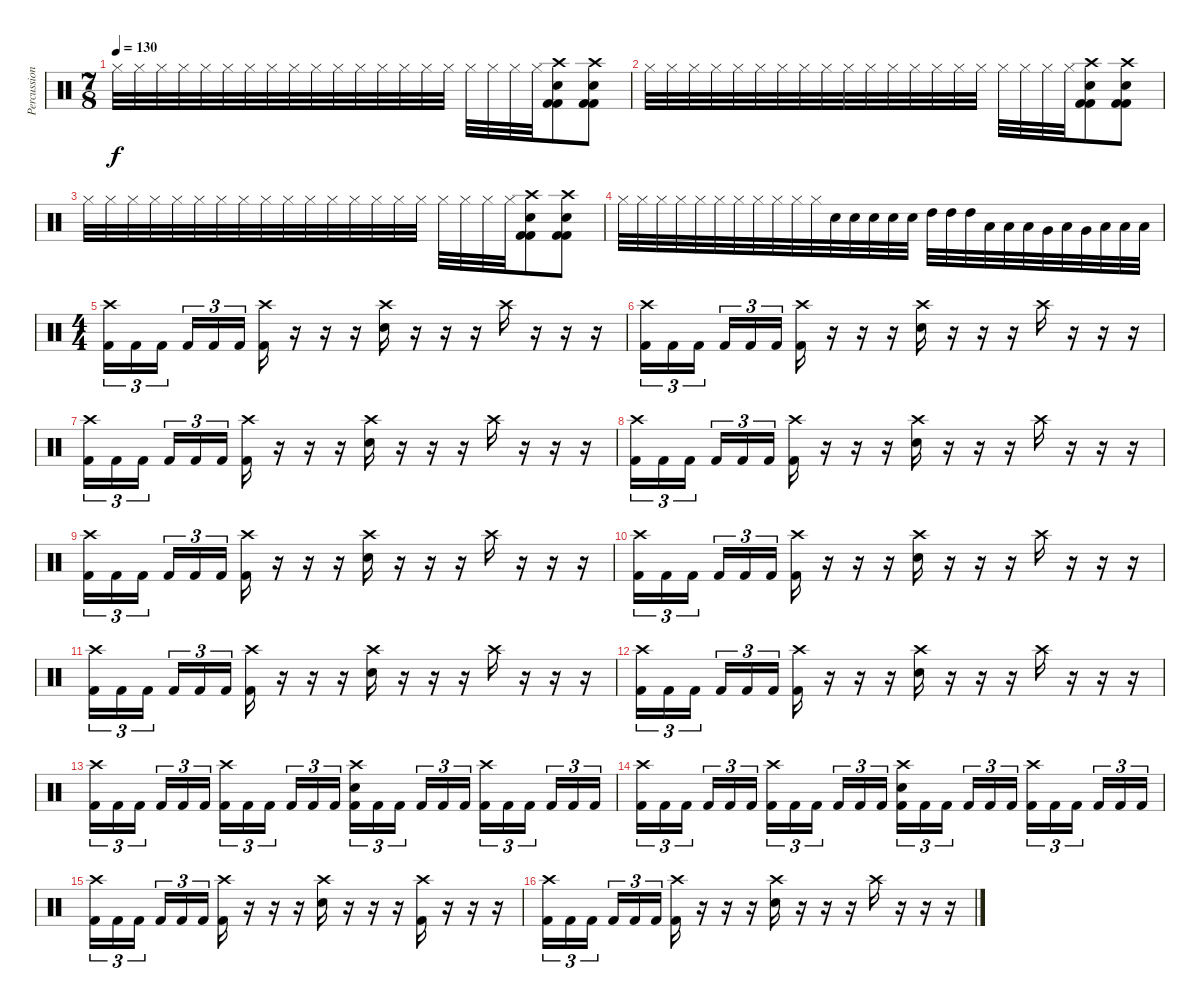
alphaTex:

\track ("Percussion" "Percussion") {instrument percussion}
\staff {score}
\articulation defaults
\ts (7 8)
\tempo 130
\clef neutral
\ks c "Hi-Hat (closed)".32{dy f} "Hi-Hat (closed)".32 "Hi-Hat (closed)".32 "Hi-Hat (closed)".32 "Hi-Hat (closed)".32 "Hi-Hat (closed)".32 "Hi-Hat (closed)".32 "Hi-Hat (closed)".32 "Hi-Hat (closed)".32 "Hi-Hat (closed)".32 "Hi-Hat (closed)".32 "Hi-Hat (closed)".32 "Hi-Hat (closed)".32 "Hi-Hat (closed)".32 "Hi-Hat (closed)".32 "Hi-Hat (closed)".32 "Hi-Hat (closed)".32 "Hi-Hat (closed)".32 "Hi-Hat (closed)".32 "Hi-Hat (closed)".32
("Crash high (hit)" "Electric Snare (hit)" "Kick (hit) 2" "Kick (hit) 2").8 ("Crash high (hit)" "Electric Snare (hit)" "Kick (hit) 2" "Kick (hit) 2").8 |
"Hi-Hat (closed)".32 "Hi-Hat (closed)".32 "Hi-Hat (closed)".32 "Hi-Hat (closed)".32 "Hi-Hat (closed)".32 "Hi-Hat (closed)".32 "Hi-Hat (closed)".32 "Hi-Hat (closed)".32 "Hi-Hat (closed)".32 "Hi-Hat (closed)".32 "Hi-Hat (closed)".32 "Hi-Hat (closed)".32 "Hi-Hat (closed)".32 "Hi-Hat (closed)".32 "Hi-Hat (closed)".32 "Hi-Hat (closed)".32 "Hi-Hat (closed)".32 "Hi-Hat (closed)".32 "Hi-Hat (closed)".32 "Hi-Hat (closed)".32 ("Crash high (hit)" "Electric Snare (hit)" "Kick (hit) 2" "Kick (hit) 2").8 ("Crash high (hit)" "Electric Snare (hit)" "Kick (hit) 2" "Kick (hit) 2").8 |
"Hi-Hat (closed)".32 "Hi-Hat (closed)".32 "Hi-Hat (closed)".32 "Hi-Hat (closed)".32 "Hi-Hat (closed)".32 "Hi-Hat (closed)".32 "Hi-Hat (closed)".32 "Hi-Hat (closed)".32 "Hi-Hat (closed)".32 "Hi-Hat (closed)".32 "Hi-Hat (closed)".32 "Hi-Hat (closed)".32 "Hi-Hat (closed)".32 "Hi-Hat (closed)".32 "Hi-Hat (closed)".32 "Hi-Hat (closed)".32 "Hi-Hat (closed)".32 "Hi-Hat (closed)".32 "Hi-Hat (closed)".32 "Hi-Hat (closed)".32 ("Crash high (hit)" "Electric Snare (hit)" "Kick (hit) 2" "Kick (hit) 2").8 ("Crash high (hit)" "Electric Snare (hit)" "Kick (hit) 2" "Kick (hit) 2").8 |
"Hi-Hat (closed)".32 "Hi-Hat (closed)".32 "Hi-Hat (closed)".32 "Hi-Hat (closed)".32 "Hi-Hat (closed)".32 "Hi-Hat (closed)".32 "Hi-Hat (closed)".32 "Hi-Hat (closed)".32 "Hi-Hat (closed)".32 "Hi-Hat (closed)".32 "Hi-Hat (closed)".32 "Electric Snare (hit)".32 "Electric Snare (hit)".32 "Electric Snare (hit)".32 "Electric Snare (hit)".32 "Electric Snare (hit)".32 "High Tom (hit)".32 "High Tom (hit)".32 "High Tom (hit)".32 "Low Tom (hit)".32 "Low Tom (hit)".32 "Low Tom (hit)".32 "Very Low Tom (hit)".32 "Low Tom (hit)".32 "Very Low Tom (hit)".32 "Low Floor Tom (hit)".32 "Low Floor Tom (hit)".32 "Low Floor Tom (hit)".32 |
\ts (4 4)
("Crash high (hit)" "Kick (hit) 2").16{tu (3 2)} "Kick (hit) 2".16{tu (3 2)} "Kick (hit) 2".16{tu (3 2)} "Kick (hit) 2".16{tu (3 2)} "Kick (hit) 2".16{tu (3 2)} "Kick (hit) 2".16{tu (3 2)} ("Crash high (hit)" "Kick (hit) 2").16 r.16 r.16 r.16 ("Crash high (hit)" "Electric Snare (hit)").16 r.16 r.16 r.16 "Crash high (hit)".16 r.16 r.16 r.16 |
("Crash high (hit)" "Kick (hit) 2").16{tu (3 2)} "Kick (hit) 2".16{tu (3 2)} "Kick (hit) 2".16{tu (3 2)} "Kick (hit) 2".16{tu (3 2)} "Kick (hit) 2".16{tu (3 2)} "Kick (hit) 2".16{tu (3 2)} ("Crash high (hit)" "Kick (hit) 2").16 r.16 r.16 r.16 ("Crash high (hit)" "Electric Snare (hit)").16 r.16 r.16 r.16 "Crash high (hit)".16 r.16 r.16 r.16 |
("Crash high (hit)" "Kick (hit) 2").16{tu (3 2)} "Kick (hit) 2".16{tu (3 2)} "Kick (hit) 2".16{tu (3 2)} "Kick (hit) 2".16{tu (3 2)} "Kick (hit) 2".16{tu (3 2)} "Kick (hit) 2".16{tu (3 2)} ("Crash high (hit)" "Kick (hit) 2").16 r.16 r.16 r.16 ("Crash high (hit)" "Electric Snare (hit)").16 r.16 r.16 r.16 "Crash high (hit)".16 r.16 r.16 r.16 |
("Crash high (hit)" "Kick (hit) 2").16{tu (3 2)} "Kick (hit) 2".16{tu (3 2)} "Kick (hit) 2".16{tu (3 2)} "Kick (hit) 2".16{tu (3 2)} "Kick (hit) 2".16{tu (3 2)} "Kick (hit) 2".16{tu (3 2)} ("Crash high (hit)" "Kick (hit) 2").16 r.16 r.16 r.16 ("Crash high (hit)" "Electric Snare (hit)").16 r.16 r.16 r.16 "Crash high (hit)".16 r.16 r.16 r.16 |
("Crash high (hit)" "Kick (hit) 2").16{tu (3 2)} "Kick (hit) 2".16{tu (3 2)} "Kick (hit) 2".16{tu (3 2)} "Kick (hit) 2".16{tu (3 2)} "Kick (hit) 2".16{tu (3 2)} "Kick (hit) 2".16{tu (3 2)} ("Crash high (hit)" "Kick (hit) 2").16 r.16 r.16 r.16 ("Crash high (hit)" "Electric Snare (hit)").16 r.16 r.16 r.16 "Crash high (hit)".16 r.16 r.16 r.16 |
("Crash high (hit)" "Kick (hit) 2").16{tu (3 2)} "Kick (hit) 2".16{tu (3 2)} "Kick (hit) 2".16{tu (3 2)} "Kick (hit) 2".16{tu (3 2)} "Kick (hit) 2".16{tu (3 2)} "Kick (hit) 2".16{tu (3 2)} ("Crash high (hit)" "Kick (hit) 2").16 r.16 r.16 r.16 ("Crash high (hit)" "Electric Snare (hit)").16 r.16 r.16 r.16 "Crash high (hit)".16 r.16 r.16 r.16 |
("Crash high (hit)" "Kick (hit) 2").16{tu (3 2)} "Kick (hit) 2".16{tu (3 2)} "Kick (hit) 2".16{tu (3 2)} "Kick (hit) 2".16{tu (3 2)} "Kick (hit) 2".16{tu (3 2)} "Kick (hit) 2".16{tu (3 2)} ("Crash high (hit)" "Kick (hit) 2").16 r.16 r.16 r.16 ("Crash high (hit)" "Electric Snare (hit)").16 r.16 r.16 r.16 "Crash high (hit)".16 r.16 r.16 r.16 |
("Crash high (hit)" "Kick (hit) 2").16{tu (3 2)} "Kick (hit) 2".16{tu (3 2)} "Kick (hit) 2".16{tu (3 2)} "Kick (hit) 2".16{tu (3 2)} "Kick (hit) 2".16{tu (3 2)} "Kick (hit) 2".16{tu (3 2)} ("Crash high (hit)" "Kick (hit) 2").16 r.16 r.16 r.16 ("Crash high (hit)" "Electric Snare (hit)").16 r.16 r.16 r.16 "Crash high (hit)".16 r.16 r.16 r.16 |
("Crash high (hit)" "Kick (hit) 2").16{tu (3 2)} "Kick (hit) 2".16{tu (3 2)} "Kick (hit) 2".16{tu (3 2)} "Kick (hit) 2".16{tu (3 2)} "Kick (hit) 2".16{tu (3 2)} "Kick (hit) 2".16{tu (3 2)} ("Crash high (hit)" "Kick (hit) 2").16{tu (3 2)} "Kick (hit) 2".16{tu (3 2)} "Kick (hit) 2".16{tu (3 2)} "Kick (hit) 2".16{tu (3 2)} "Kick (hit) 2".16{tu (3 2)} "Kick (hit) 2".16{tu (3 2)} ("Crash high (hit)" "Electric Snare (hit)" "Kick (hit) 2").16{tu (3 2)} "Kick (hit) 2".16{tu (3 2)} "Kick (hit) 2".16{tu (3 2)} "Kick (hit) 2".16{tu (3 2)} "Kick (hit) 2".16{tu (3 2)} "Kick (hit) 2".16{tu (3 2)} ("Crash high (hit)" "Kick (hit) 2").16{tu (3 2)} "Kick (hit) 2".16{tu (3 2)} "Kick (hit) 2".16{tu (3 2)} "Kick (hit) 2".16{tu (3 2)} "Kick (hit) 2".16{tu (3 2)} "Kick (hit) 2".16{tu (3 2)} |
("Crash high (hit)" "Kick (hit) 2").16{tu (3 2)} "Kick (hit) 2".16{tu (3 2)} "Kick (hit) 2".16{tu (3 2)} "Kick (hit) 2".16{tu (3 2)} "Kick (hit) 2".16{tu (3 2)} "Kick (hit) 2".16{tu (3 2)} ("Crash high (hit)" "Kick (hit) 2").16{tu (3 2)} "Kick (hit) 2".16{tu (3 2)} "Kick (hit) 2".16{tu (3 2)} "Kick (hit) 2".16{tu (3 2)} "Kick (hit) 2".16{tu (3 2)} "Kick (hit) 2".16{tu (3 2)} ("Crash high (hit)" "Electric Snare (hit)" "Kick (hit) 2").16{tu (3 2)} "Kick (hit) 2".16{tu (3 2)} "Kick (hit) 2".16{tu (3 2)} "Kick (hit) 2".16{tu (3 2)} "Kick (hit) 2".16{tu (3 2)} "Kick (hit) 2".16{tu (3 2)} ("Crash high (hit)" "Kick (hit) 2").16{tu (3 2)} "Kick (hit) 2".16{tu (3 2)} "Kick (hit) 2".16{tu (3 2)} "Kick (hit) 2".16{tu (3 2)} "Kick (hit) 2".16{tu (3 2)} "Kick (hit) 2".16{tu (3 2)} |
("Crash high (hit)" "Kick (hit) 2").16{tu (3 2)} "Kick (hit) 2".16{tu (3 2)} "Kick (hit) 2".16{tu (3 2)} "Kick (hit) 2".16{tu (3 2)} "Kick (hit) 2".16{tu (3 2)} "Kick (hit) 2".16{tu (3 2)} ("Crash high (hit)" "Kick (hit) 2").16 r.16 r.16 r.16 ("Crash high (hit)" "Electric Snare (hit)").16 r.16 r.16 r.16 ("Crash high (hit)" "Kick (hit) 2").16 r.16 r.16 r.16 |
("Crash high (hit)" "Kick (hit) 2").16{tu (3 2)} "Kick (hit) 2".16{tu (3 2)} "Kick (hit) 2".16{tu (3 2)} "Kick (hit) 2".16{tu (3 2)} "Kick (hit) 2".16{tu (3 2)} "Kick (hit) 2".16{tu (3 2)} ("Crash high (hit)" "Kick (hit) 2").16 r.16 r.16 r.16 ("Crash high (hit)" "Electric Snare (hit)").16 r.16 r.16 r.16 "Crash high (hit)".16 r.16 r.16 r.16
